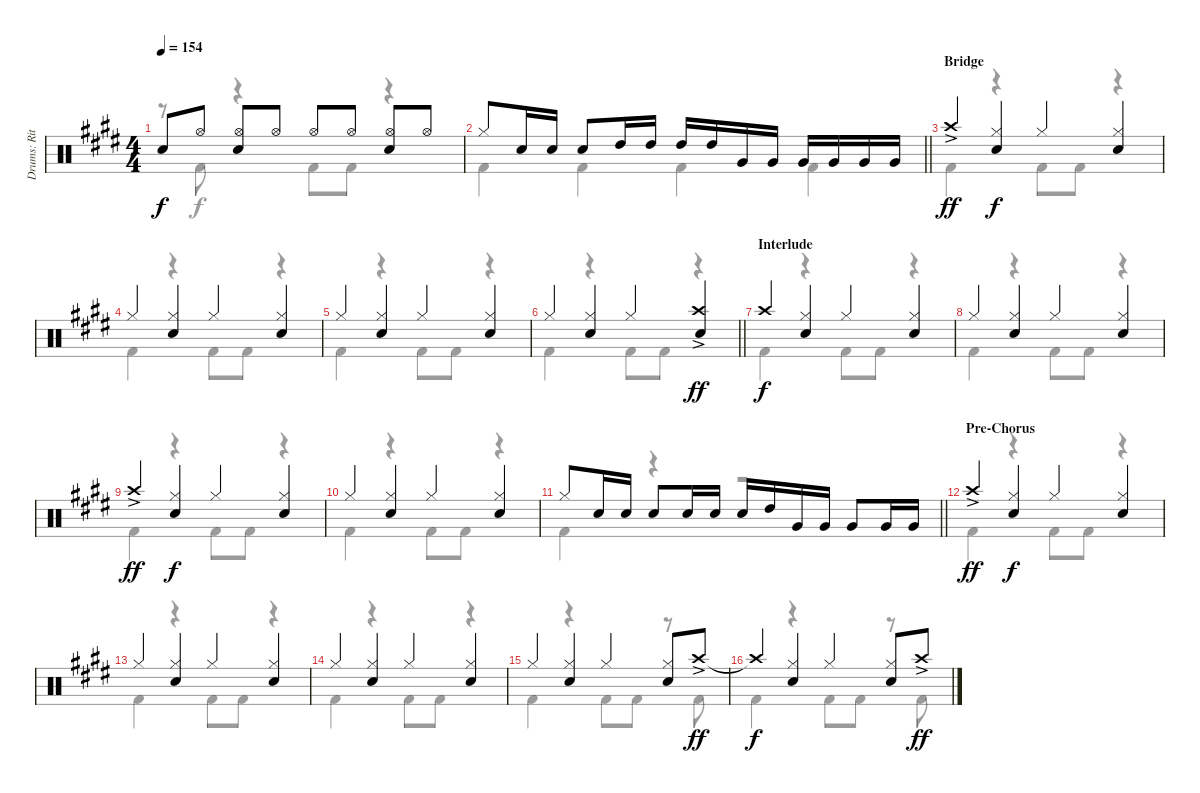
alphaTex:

\track ("Drums: Ritsu Tainaka" "Drums: Rit") {instrument percussion}
\staff {score}
\articulation defaults
\voice
\ts (4 4)
\tempo 154
\clef neutral
\ks e "Snare (hit)"{t}.8{dy f} "Hi-Hat (open)".8
("Hi-Hat (open)" "Electric Snare (hit)").8 "Hi-Hat (open)".8 "Hi-Hat (open)".8 "Hi-Hat (open)".8 ("Hi-Hat (open)" "Electric Snare (hit)").8 "Hi-Hat (open)".8 |
\barLineRight lightlight "Hi-Hat (closed)".8 "Electric Snare (hit)".16 "Electric Snare (hit)".16 "Electric Snare (hit)".8 "High Tom (hit)".16 "High Tom (hit)".16 "High Tom (hit)".16 "High Tom (hit)".16 "Very Low Tom (hit)".16 "Very Low Tom (hit)".16 "Very Low Tom (hit)".16 "Very Low Tom (hit)".16 "Very Low Tom (hit)".16 "Very Low Tom (hit)".16
|
\section ("" "Bridge")
"Crash high (hit)"{ac}.4{dy ff} ("Hi-Hat (closed)" "Electric Snare (hit)").4{dy f} "Hi-Hat (closed)".4 ("Hi-Hat (closed)" "Electric Snare (hit)").4 |
"Hi-Hat (closed)".4 ("Hi-Hat (closed)" "Electric Snare (hit)").4 "Hi-Hat (closed)".4 ("Hi-Hat (closed)" "Electric Snare (hit)").4 |
"Hi-Hat (closed)".4 ("Hi-Hat (closed)" "Electric Snare (hit)").4 "Hi-Hat (closed)".4 ("Hi-Hat (closed)" "Electric Snare (hit)").4 |
\barLineRight lightlight "Hi-Hat (closed)".4
("Hi-Hat (closed)" "Electric Snare (hit)").4 "Hi-Hat (closed)".4 ("Crash high (hit)"{ac} "Electric Snare (hit)").4{dy ff} |
\section ("" "Interlude")
"Crash high (hit)".4{dy f} ("Hi-Hat (closed)" "Electric Snare (hit)").4 "Hi-Hat (closed)".4 ("Hi-Hat (closed)" "Electric Snare (hit)").4 |
"Hi-Hat (closed)".4 ("Hi-Hat (closed)" "Electric Snare (hit)").4 "Hi-Hat (closed)".4 ("Hi-Hat (closed)" "Electric Snare (hit)").4 |
"Crash high (hit)"{ac}.4{dy ff} ("Hi-Hat (closed)" "Electric Snare (hit)").4{dy f} "Hi-Hat (closed)".4 ("Hi-Hat (closed)" "Electric Snare (hit)").4 |
"Hi-Hat (closed)".4 ("Hi-Hat (closed)" "Electric Snare (hit)").4 "Hi-Hat (closed)".4 ("Hi-Hat (closed)" "Electric Snare (hit)").4 |
\barLineRight lightlight "Hi-Hat (closed)".8 "Electric Snare (hit)".16 "Electric Snare (hit)".16 "Electric Snare (hit)".8 "Electric Snare (hit)".16 "Electric Snare (hit)".16 "Electric Snare (hit)".16 "High Tom (hit)".16 "Very Low Tom (hit)".16 "Very Low Tom (hit)".16 "Very Low Tom (hit)".8 "Very Low Tom (hit)".16 "Very Low Tom (hit)".16
|
\section ("" "Pre-Chorus")
"Crash high (hit)"{ac}.4{dy ff} ("Hi-Hat (closed)" "Electric Snare (hit)").4{dy f} "Hi-Hat (closed)".4 ("Hi-Hat (closed)" "Electric Snare (hit)").4 |
"Hi-Hat (closed)".4 ("Hi-Hat (closed)" "Electric Snare (hit)").4 "Hi-Hat (closed)".4 ("Hi-Hat (closed)" "Electric Snare (hit)").4 |
"Hi-Hat (closed)".4 ("Hi-Hat (closed)" "Electric Snare (hit)").4 "Hi-Hat (closed)".4 ("Hi-Hat (closed)" "Electric Snare (hit)").4 |
"Hi-Hat (closed)".4 ("Hi-Hat (closed)" "Electric Snare (hit)").4 "Hi-Hat (closed)".4 ("Hi-Hat (closed)" "Electric Snare (hit)").8 "Crash high (hit)"{ac}.8{dy ff} |
"Crash high (hit)"{t}.4{dy f} ("Hi-Hat (closed)" "Electric Snare (hit)").4 "Hi-Hat (closed)".4 ("Hi-Hat (closed)" "Electric Snare (hit)").8 "Crash high (hit)"{ac}.8{dy ff}
\voice
\clef neutral
\ottava regular
\simile none
\ks e
r.8{dy f} "Kick (hit) 2".8 r.4 "Kick (hit) 2".8 "Kick (hit) 2".8 r.4 |
\barLineRight lightlight "Kick (hit) 2".4 "Kick (hit) 2".4 "Kick (hit) 2".4 "Kick (hit) 2".4
|
"Kick (hit) 2".4 r.4 "Kick (hit) 2".8 "Kick (hit) 2".8 r.4 |
"Kick (hit) 2".4 r.4 "Kick (hit) 2".8 "Kick (hit) 2".8 r.4 |
"Kick (hit) 2".4 r.4 "Kick (hit) 2".8 "Kick (hit) 2".8 r.4 |
\barLineRight lightlight "Kick (hit) 2".4
r.4 "Kick (hit) 2".8 "Kick (hit) 2".8 r.4 |
"Kick (hit) 2".4 r.4 "Kick (hit) 2".8 "Kick (hit) 2".8 r.4 |
"Kick (hit) 2".4 r.4 "Kick (hit) 2".8 "Kick (hit) 2".8 r.4 |
"Kick (hit) 2".4 r.4 "Kick (hit) 2".8 "Kick (hit) 2".8 r.4 |
"Kick (hit) 2".4 r.4 "Kick (hit) 2".8 "Kick (hit) 2".8 r.4 |
\barLineRight lightlight "Kick (hit) 2".4
r.4 r.2 |
"Kick (hit) 2".4 r.4 "Kick (hit) 2".8 "Kick (hit) 2".8 r.4 |
"Kick (hit) 2".4 r.4 "Kick (hit) 2".8 "Kick (hit) 2".8 r.4 |
"Kick (hit) 2".4 r.4 "Kick (hit) 2".8 "Kick (hit) 2".8 r.4 |
"Kick (hit) 2".4 r.4 "Kick (hit) 2".8 "Kick (hit) 2".8 r.8 "Kick (hit) 2".8 |
"Kick (hit) 2".4 r.4 "Kick (hit) 2".8 "Kick (hit) 2".8 r.8 "Kick (hit) 2".8
